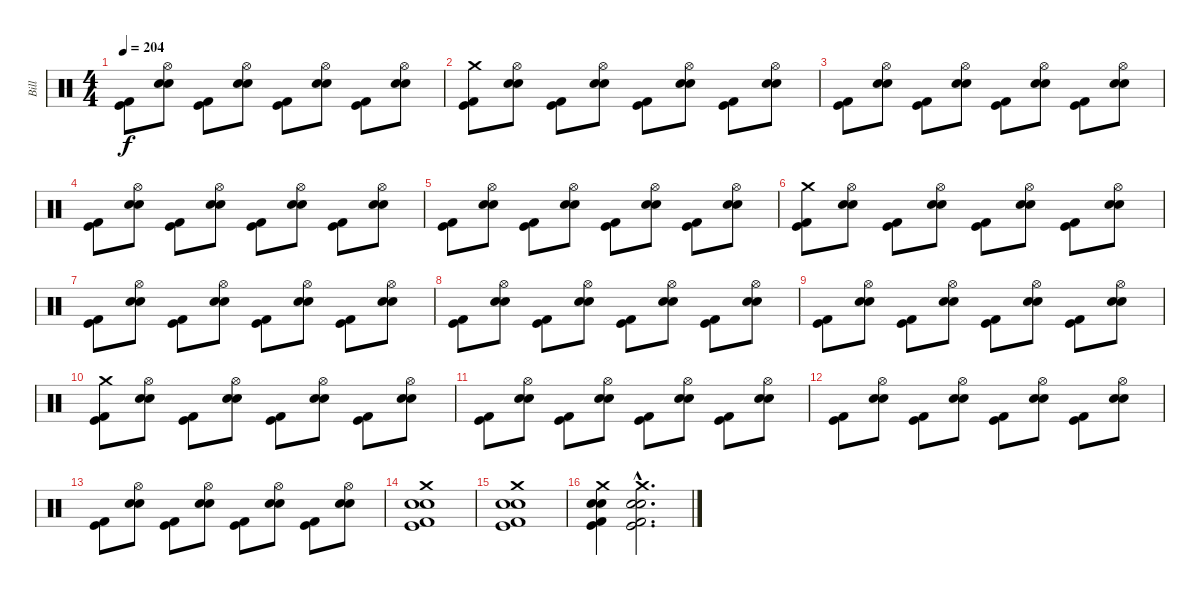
\track ("Bill" "Bill") {instrument percussion}
\staff {score}
\articulation defaults
\ts (4 4)
\tempo 204
\clef neutral
\ks c
("Kick (hit)" "Kick (hit) 2").8{dy f} ("Hi-Hat (open)" "Snare (hit) 2" "Electric Snare (hit)").8 ("Kick (hit)" "Kick (hit) 2").8 ("Hi-Hat (open)" "Snare (hit) 2" "Electric Snare (hit)").8 ("Kick (hit)" "Kick (hit) 2").8 ("Hi-Hat (open)" "Snare (hit) 2" "Electric Snare (hit)").8 ("Kick (hit)" "Kick (hit) 2").8 ("Hi-Hat (open)" "Snare (hit) 2" "Electric Snare (hit)").8 |
("Crash medium (hit)" "Kick (hit)" "Kick (hit) 2").8 ("Hi-Hat (open)" "Snare (hit) 2" "Electric Snare (hit)").8 ("Kick (hit)" "Kick (hit) 2").8 ("Hi-Hat (open)" "Snare (hit) 2" "Electric Snare (hit)").8 ("Kick (hit)" "Kick (hit) 2").8 ("Hi-Hat (open)" "Snare (hit) 2" "Electric Snare (hit)").8 ("Kick (hit)" "Kick (hit) 2").8 ("Hi-Hat (open)" "Snare (hit) 2" "Electric Snare (hit)").8 |
("Kick (hit)" "Kick (hit) 2").8 ("Hi-Hat (open)" "Snare (hit) 2" "Electric Snare (hit)").8 ("Kick (hit)" "Kick (hit) 2").8 ("Hi-Hat (open)" "Snare (hit) 2" "Electric Snare (hit)").8 ("Kick (hit)" "Kick (hit) 2").8 ("Hi-Hat (open)" "Snare (hit) 2" "Electric Snare (hit)").8 ("Kick (hit)" "Kick (hit) 2").8 ("Hi-Hat (open)" "Snare (hit) 2" "Electric Snare (hit)").8 |
("Kick (hit)" "Kick (hit) 2").8 ("Hi-Hat (open)" "Snare (hit) 2" "Electric Snare (hit)").8 ("Kick (hit)" "Kick (hit) 2").8 ("Hi-Hat (open)" "Snare (hit) 2" "Electric Snare (hit)").8 ("Kick (hit)" "Kick (hit) 2").8 ("Hi-Hat (open)" "Snare (hit) 2" "Electric Snare (hit)").8 ("Kick (hit)" "Kick (hit) 2").8 ("Hi-Hat (open)" "Snare (hit) 2" "Electric Snare (hit)").8 |
("Kick (hit)" "Kick (hit) 2").8 ("Hi-Hat (open)" "Snare (hit) 2" "Electric Snare (hit)").8 ("Kick (hit)" "Kick (hit) 2").8 ("Hi-Hat (open)" "Snare (hit) 2" "Electric Snare (hit)").8 ("Kick (hit)" "Kick (hit) 2").8 ("Hi-Hat (open)" "Snare (hit) 2" "Electric Snare (hit)").8 ("Kick (hit)" "Kick (hit) 2").8 ("Hi-Hat (open)" "Snare (hit) 2" "Electric Snare (hit)").8 |
("Crash medium (hit)" "Kick (hit)" "Kick (hit) 2").8 ("Hi-Hat (open)" "Snare (hit) 2" "Electric Snare (hit)").8 ("Kick (hit)" "Kick (hit) 2").8 ("Hi-Hat (open)" "Snare (hit) 2" "Electric Snare (hit)").8 ("Kick (hit)" "Kick (hit) 2").8 ("Hi-Hat (open)" "Snare (hit) 2" "Electric Snare (hit)").8 ("Kick (hit)" "Kick (hit) 2").8 ("Hi-Hat (open)" "Snare (hit) 2" "Electric Snare (hit)").8 |
("Kick (hit)" "Kick (hit) 2").8 ("Hi-Hat (open)" "Snare (hit) 2" "Electric Snare (hit)").8 ("Kick (hit)" "Kick (hit) 2").8 ("Hi-Hat (open)" "Snare (hit) 2" "Electric Snare (hit)").8 ("Kick (hit)" "Kick (hit) 2").8 ("Hi-Hat (open)" "Snare (hit) 2" "Electric Snare (hit)").8 ("Kick (hit)" "Kick (hit) 2").8 ("Hi-Hat (open)" "Snare (hit) 2" "Electric Snare (hit)").8 |
("Kick (hit)" "Kick (hit) 2").8 ("Hi-Hat (open)" "Snare (hit) 2" "Electric Snare (hit)").8 ("Kick (hit)" "Kick (hit) 2").8 ("Hi-Hat (open)" "Snare (hit) 2" "Electric Snare (hit)").8 ("Kick (hit)" "Kick (hit) 2").8 ("Hi-Hat (open)" "Snare (hit) 2" "Electric Snare (hit)").8 ("Kick (hit)" "Kick (hit) 2").8 ("Hi-Hat (open)" "Snare (hit) 2" "Electric Snare (hit)").8 |
("Kick (hit)" "Kick (hit) 2").8 ("Hi-Hat (open)" "Snare (hit) 2" "Electric Snare (hit)").8 ("Kick (hit)" "Kick (hit) 2").8 ("Hi-Hat (open)" "Snare (hit) 2" "Electric Snare (hit)").8 ("Kick (hit)" "Kick (hit) 2").8 ("Hi-Hat (open)" "Snare (hit) 2" "Electric Snare (hit)").8 ("Kick (hit)" "Kick (hit) 2").8 ("Hi-Hat (open)" "Snare (hit) 2" "Electric Snare (hit)").8 |
("Crash medium (hit)" "Kick (hit)" "Kick (hit) 2").8 ("Hi-Hat (open)" "Snare (hit) 2" "Electric Snare (hit)").8 ("Kick (hit)" "Kick (hit) 2").8 ("Hi-Hat (open)" "Snare (hit) 2" "Electric Snare (hit)").8 ("Kick (hit)" "Kick (hit) 2").8 ("Hi-Hat (open)" "Snare (hit) 2" "Electric Snare (hit)").8 ("Kick (hit)" "Kick (hit) 2").8 ("Hi-Hat (open)" "Snare (hit) 2" "Electric Snare (hit)").8 |
("Kick (hit)" "Kick (hit) 2").8 ("Hi-Hat (open)" "Snare (hit) 2" "Electric Snare (hit)").8 ("Kick (hit)" "Kick (hit) 2").8 ("Hi-Hat (open)" "Snare (hit) 2" "Electric Snare (hit)").8 ("Kick (hit)" "Kick (hit) 2").8 ("Hi-Hat (open)" "Snare (hit) 2" "Electric Snare (hit)").8 ("Kick (hit)" "Kick (hit) 2").8 ("Hi-Hat (open)" "Snare (hit) 2" "Electric Snare (hit)").8 |
("Kick (hit)" "Kick (hit) 2").8 ("Hi-Hat (open)" "Snare (hit) 2" "Electric Snare (hit)").8 ("Kick (hit)" "Kick (hit) 2").8 ("Hi-Hat (open)" "Snare (hit) 2" "Electric Snare (hit)").8 ("Kick (hit)" "Kick (hit) 2").8 ("Hi-Hat (open)" "Snare (hit) 2" "Electric Snare (hit)").8 ("Kick (hit)" "Kick (hit) 2").8 ("Hi-Hat (open)" "Snare (hit) 2" "Electric Snare (hit)").8 |
("Kick (hit)" "Kick (hit) 2").8 ("Hi-Hat (open)" "Snare (hit) 2" "Electric Snare (hit)").8 ("Kick (hit)" "Kick (hit) 2").8 ("Hi-Hat (open)" "Snare (hit) 2" "Electric Snare (hit)").8 ("Kick (hit)" "Kick (hit) 2").8 ("Hi-Hat (open)" "Snare (hit) 2" "Electric Snare (hit)").8 ("Kick (hit)" "Kick (hit) 2").8 ("Hi-Hat (open)" "Snare (hit) 2" "Electric Snare (hit)").8 |
("Crash medium (hit)" "Snare (hit) 2" "Electric Snare (hit)" "Kick (hit)" "Kick (hit) 2").1 |
("Crash medium (hit)" "Snare (hit) 2" "Electric Snare (hit)" "Kick (hit)" "Kick (hit) 2").1 |
("Crash medium (hit)" "Snare (hit) 2" "Electric Snare (hit)" "Kick (hit)" "Kick (hit) 2").4 ("Crash medium (hit)"{hac} "Snare (hit) 2"{hac} "Electric Snare (hit)"{hac} "Kick (hit)"{hac} "Kick (hit) 2"{hac}).2{d}
